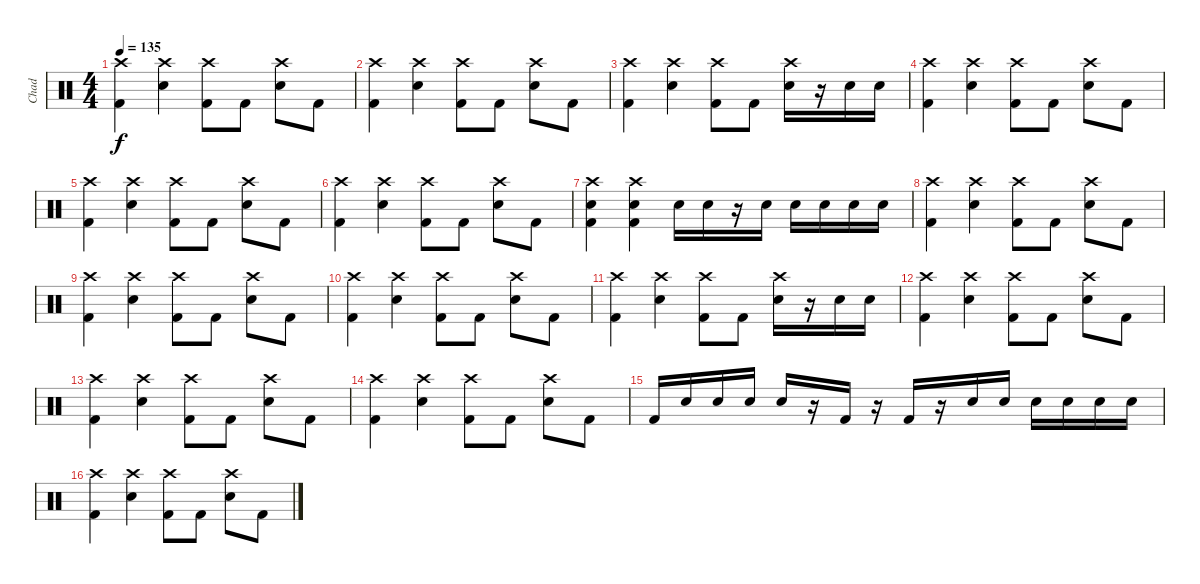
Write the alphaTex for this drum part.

\track ("Chad" "Chad") {instrument percussion}
\staff {score}
\articulation defaults
\ts (4 4)
\tempo 135
\clef neutral
\ks c
("Crash high (hit)" "Kick (hit) 2").4{dy f} ("Crash high (hit)" "Electric Snare (hit)").4 ("Crash high (hit)" "Kick (hit) 2").8 "Kick (hit) 2".8 ("Crash high (hit)" "Electric Snare (hit)").8 "Kick (hit) 2".8 |
("Crash high (hit)" "Kick (hit) 2").4 ("Crash high (hit)" "Electric Snare (hit)").4 ("Crash high (hit)" "Kick (hit) 2").8 "Kick (hit) 2".8 ("Crash high (hit)" "Electric Snare (hit)").8 "Kick (hit) 2".8 |
("Crash high (hit)" "Kick (hit) 2").4 ("Crash high (hit)" "Electric Snare (hit)").4 ("Crash high (hit)" "Kick (hit) 2").8 "Kick (hit) 2".8 ("Crash high (hit)" "Electric Snare (hit)").16 r.16 "Electric Snare (hit)".16 "Electric Snare (hit)".16 |
("Crash high (hit)" "Kick (hit) 2").4 ("Crash high (hit)" "Electric Snare (hit)").4 ("Crash high (hit)" "Kick (hit) 2").8 "Kick (hit) 2".8 ("Crash high (hit)" "Electric Snare (hit)").8 "Kick (hit) 2".8 |
("Crash high (hit)" "Kick (hit) 2").4 ("Crash high (hit)" "Electric Snare (hit)").4 ("Crash high (hit)" "Kick (hit) 2").8 "Kick (hit) 2".8 ("Crash high (hit)" "Electric Snare (hit)").8 "Kick (hit) 2".8 |
("Crash high (hit)" "Kick (hit) 2").4 ("Crash high (hit)" "Electric Snare (hit)").4 ("Crash high (hit)" "Kick (hit) 2").8 "Kick (hit) 2".8 ("Crash high (hit)" "Electric Snare (hit)").8 "Kick (hit) 2".8 |
("Crash high (hit)" "Electric Snare (hit)" "Kick (hit) 2").4 ("Crash high (hit)" "Electric Snare (hit)" "Kick (hit) 2").4 "Electric Snare (hit)".16 "Electric Snare (hit)".16 r.16 "Electric Snare (hit)".16 "Electric Snare (hit)".16 "Electric Snare (hit)".16 "Electric Snare (hit)".16 "Electric Snare (hit)".16 |
("Crash high (hit)" "Kick (hit) 2").4 ("Crash high (hit)" "Electric Snare (hit)").4 ("Crash high (hit)" "Kick (hit) 2").8 "Kick (hit) 2".8 ("Crash high (hit)" "Electric Snare (hit)").8 "Kick (hit) 2".8 |
("Crash high (hit)" "Kick (hit) 2").4 ("Crash high (hit)" "Electric Snare (hit)").4 ("Crash high (hit)" "Kick (hit) 2").8 "Kick (hit) 2".8 ("Crash high (hit)" "Electric Snare (hit)").8 "Kick (hit) 2".8 |
("Crash high (hit)" "Kick (hit) 2").4 ("Crash high (hit)" "Electric Snare (hit)").4 ("Crash high (hit)" "Kick (hit) 2").8 "Kick (hit) 2".8 ("Crash high (hit)" "Electric Snare (hit)").8 "Kick (hit) 2".8 |
("Crash high (hit)" "Kick (hit) 2").4 ("Crash high (hit)" "Electric Snare (hit)").4 ("Crash high (hit)" "Kick (hit) 2").8 "Kick (hit) 2".8 ("Crash high (hit)" "Electric Snare (hit)").16 r.16 "Electric Snare (hit)".16 "Electric Snare (hit)".16 |
("Crash high (hit)" "Kick (hit) 2").4 ("Crash high (hit)" "Electric Snare (hit)").4 ("Crash high (hit)" "Kick (hit) 2").8 "Kick (hit) 2".8 ("Crash high (hit)" "Electric Snare (hit)").8 "Kick (hit) 2".8 |
("Crash high (hit)" "Kick (hit) 2").4 ("Crash high (hit)" "Electric Snare (hit)").4 ("Crash high (hit)" "Kick (hit) 2").8 "Kick (hit) 2".8 ("Crash high (hit)" "Electric Snare (hit)").8 "Kick (hit) 2".8 |
("Crash high (hit)" "Kick (hit) 2").4 ("Crash high (hit)" "Electric Snare (hit)").4 ("Crash high (hit)" "Kick (hit) 2").8 "Kick (hit) 2".8 ("Crash high (hit)" "Electric Snare (hit)").8 "Kick (hit) 2".8 |
"Kick (hit) 2".16 "Electric Snare (hit)".16 "Electric Snare (hit)".16 "Electric Snare (hit)".16 "Electric Snare (hit)".16 r.16 "Kick (hit) 2".16 r.16 "Kick (hit) 2".16 r.16 "Electric Snare (hit)".16 "Electric Snare (hit)".16 "Electric Snare (hit)".16 "Electric Snare (hit)".16 "Electric Snare (hit)".16 "Electric Snare (hit)".16 |
("Crash high (hit)" "Kick (hit) 2").4 ("Crash high (hit)" "Electric Snare (hit)").4 ("Crash high (hit)" "Kick (hit) 2").8 "Kick (hit) 2".8 ("Crash high (hit)" "Electric Snare (hit)").8 "Kick (hit) 2".8
